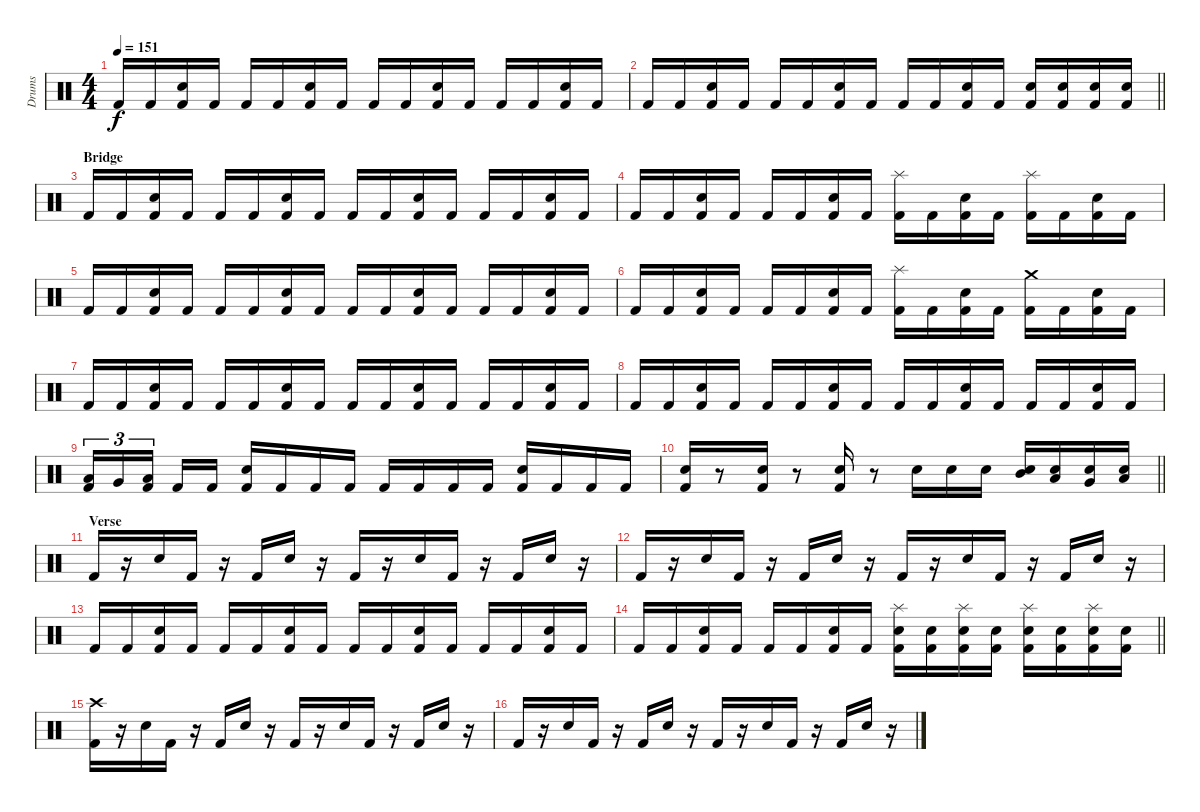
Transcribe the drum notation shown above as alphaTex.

\track ("Drums" "Drums") {instrument percussion}
\staff {score}
\articulation defaults
\ts (4 4)
\tempo 151
\clef neutral
\ks c "Kick (hit) 2".16{dy f} "Kick (hit) 2".16
("Snare (hit) 2" "Kick (hit) 2").16 "Kick (hit) 2".16 "Kick (hit) 2".16 "Kick (hit) 2".16 ("Snare (hit) 2" "Kick (hit) 2").16 "Kick (hit) 2".16 "Kick (hit) 2".16 "Kick (hit) 2".16 ("Snare (hit) 2" "Kick (hit) 2").16 "Kick (hit) 2".16 "Kick (hit) 2".16 "Kick (hit) 2".16 ("Snare (hit) 2" "Kick (hit) 2").16 "Kick (hit) 2".16 |
\barLineRight lightlight "Kick (hit) 2".16 "Kick (hit) 2".16
("Snare (hit) 2" "Kick (hit) 2").16 "Kick (hit) 2".16 "Kick (hit) 2".16 "Kick (hit) 2".16 ("Snare (hit) 2" "Kick (hit) 2").16 "Kick (hit) 2".16 "Kick (hit) 2".16 "Kick (hit) 2".16 ("Snare (hit) 2" "Kick (hit) 2").16 "Kick (hit) 2".16 ("Snare (hit) 2" "Kick (hit) 2").16 ("Snare (hit) 2" "Kick (hit) 2").16 ("Snare (hit) 2" "Kick (hit) 2").16 ("Snare (hit) 2" "Kick (hit) 2").16 |
\section ("" "Bridge")
"Kick (hit) 2".16 "Kick (hit) 2".16 ("Snare (hit) 2" "Kick (hit) 2").16 "Kick (hit) 2".16 "Kick (hit) 2".16 "Kick (hit) 2".16 ("Snare (hit) 2" "Kick (hit) 2").16 "Kick (hit) 2".16 "Kick (hit) 2".16 "Kick (hit) 2".16 ("Snare (hit) 2" "Kick (hit) 2").16 "Kick (hit) 2".16 "Kick (hit) 2".16 "Kick (hit) 2".16 ("Snare (hit) 2" "Kick (hit) 2").16 "Kick (hit) 2".16 |
"Kick (hit) 2".16 "Kick (hit) 2".16 ("Snare (hit) 2" "Kick (hit) 2").16 "Kick (hit) 2".16 "Kick (hit) 2".16 "Kick (hit) 2".16 ("Snare (hit) 2" "Kick (hit) 2").16 "Kick (hit) 2".16 ("Splash (hit)" "Kick (hit) 2").16 "Kick (hit) 2".16 ("Snare (hit) 2" "Kick (hit) 2").16 "Kick (hit) 2".16 ("Splash (hit)" "Kick (hit) 2").16 "Kick (hit) 2".16 ("Snare (hit) 2" "Kick (hit) 2").16 "Kick (hit) 2".16 |
"Kick (hit) 2".16 "Kick (hit) 2".16 ("Snare (hit) 2" "Kick (hit) 2").16 "Kick (hit) 2".16 "Kick (hit) 2".16 "Kick (hit) 2".16 ("Snare (hit) 2" "Kick (hit) 2").16 "Kick (hit) 2".16 "Kick (hit) 2".16 "Kick (hit) 2".16 ("Snare (hit) 2" "Kick (hit) 2").16 "Kick (hit) 2".16 "Kick (hit) 2".16 "Kick (hit) 2".16 ("Snare (hit) 2" "Kick (hit) 2").16 "Kick (hit) 2".16 |
"Kick (hit) 2".16 "Kick (hit) 2".16 ("Snare (hit) 2" "Kick (hit) 2").16 "Kick (hit) 2".16 "Kick (hit) 2".16 "Kick (hit) 2".16 ("Snare (hit) 2" "Kick (hit) 2").16 "Kick (hit) 2".16 ("Splash (hit)" "Kick (hit) 2").16 "Kick (hit) 2".16 ("Snare (hit) 2" "Kick (hit) 2").16 "Kick (hit) 2".16 ("Crash medium (hit)" "Kick (hit) 2").16 "Kick (hit) 2".16 ("Snare (hit) 2" "Kick (hit) 2").16 "Kick (hit) 2".16 |
"Kick (hit) 2".16 "Kick (hit) 2".16 ("Snare (hit) 2" "Kick (hit) 2").16 "Kick (hit) 2".16 "Kick (hit) 2".16 "Kick (hit) 2".16 ("Snare (hit) 2" "Kick (hit) 2").16 "Kick (hit) 2".16 "Kick (hit) 2".16 "Kick (hit) 2".16 ("Snare (hit) 2" "Kick (hit) 2").16 "Kick (hit) 2".16 "Kick (hit) 2".16 "Kick (hit) 2".16 ("Snare (hit) 2" "Kick (hit) 2").16 "Kick (hit) 2".16 |
"Kick (hit) 2".16 "Kick (hit) 2".16 ("Snare (hit) 2" "Kick (hit) 2").16 "Kick (hit) 2".16 "Kick (hit) 2".16 "Kick (hit) 2".16 ("Snare (hit) 2" "Kick (hit) 2").16 "Kick (hit) 2".16 "Kick (hit) 2".16 "Kick (hit) 2".16 ("Snare (hit) 2" "Kick (hit) 2").16 "Kick (hit) 2".16 "Kick (hit) 2".16 "Kick (hit) 2".16 ("Snare (hit) 2" "Kick (hit) 2").16 "Kick (hit) 2".16 |
("Low Tom (hit)" "Kick (hit) 2").16{tu (3 2)} "Very Low Tom (hit)".16{tu (3 2)} ("Low Floor Tom (hit)" "Kick (hit) 2").16{tu (3 2) beam splitsecondary} "Kick (hit) 2".16 "Kick (hit) 2".16 ("Snare (hit) 2" "Kick (hit) 2").16 "Kick (hit) 2".16 "Kick (hit) 2".16 "Kick (hit) 2".16 "Kick (hit) 2".16 "Kick (hit) 2".16 "Kick (hit) 2".16 "Kick (hit) 2".16 ("Snare (hit) 2" "Kick (hit) 2").16 "Kick (hit) 2".16 "Kick (hit) 2".16 "Kick (hit) 2".16 |
\barLineRight lightlight
("Snare (hit) 2" "Kick (hit) 2").16 r.8 ("Snare (hit) 2" "Kick (hit) 2").16 r.8 ("Snare (hit) 2" "Kick (hit) 2").16 r.8 "Snare (hit) 2".16 "Snare (hit) 2".16 "Snare (hit) 2".16 ("Mid Tom (hit)" "Snare (hit) 2").16 ("Low Tom (hit)" "Snare (hit) 2").16 ("Very Low Tom (hit)" "Snare (hit) 2").16 ("Low Floor Tom (hit)" "Snare (hit) 2").16 |
\section ("" "Verse")
"Kick (hit) 2".16 r.16 "Snare (hit) 2".16 "Kick (hit) 2".16 r.16 "Kick (hit) 2".16 "Snare (hit) 2".16 r.16 "Kick (hit) 2".16 r.16 "Snare (hit) 2".16 "Kick (hit) 2".16 r.16 "Kick (hit) 2".16 "Snare (hit) 2".16 r.16 |
"Kick (hit) 2".16 r.16 "Snare (hit) 2".16 "Kick (hit) 2".16 r.16 "Kick (hit) 2".16 "Snare (hit) 2".16 r.16 "Kick (hit) 2".16 r.16 "Snare (hit) 2".16 "Kick (hit) 2".16 r.16 "Kick (hit) 2".16 "Snare (hit) 2".16 r.16 |
"Kick (hit) 2".16 "Kick (hit) 2".16 ("Snare (hit) 2" "Kick (hit) 2").16 "Kick (hit) 2".16 "Kick (hit) 2".16 "Kick (hit) 2".16 ("Snare (hit) 2" "Kick (hit) 2").16 "Kick (hit) 2".16 "Kick (hit) 2".16 "Kick (hit) 2".16 ("Snare (hit) 2" "Kick (hit) 2").16 "Kick (hit) 2".16 "Kick (hit) 2".16 "Kick (hit) 2".16 ("Snare (hit) 2" "Kick (hit) 2").16 "Kick (hit) 2".16 |
\barLineRight lightlight "Kick (hit) 2".16 "Kick (hit) 2".16
("Snare (hit) 2" "Kick (hit) 2").16 "Kick (hit) 2".16 "Kick (hit) 2".16 "Kick (hit) 2".16 ("Snare (hit) 2" "Kick (hit) 2").16 "Kick (hit) 2".16 ("Splash (hit)" "Snare (hit) 2" "Kick (hit) 2").16 ("Snare (hit) 2" "Kick (hit) 2").16 ("Splash (hit)" "Snare (hit) 2" "Kick (hit) 2").16 ("Snare (hit) 2" "Kick (hit) 2").16 ("Splash (hit)" "Snare (hit) 2" "Kick (hit) 2").16 ("Snare (hit) 2" "Kick (hit) 2").16 ("Splash (hit)" "Snare (hit) 2" "Kick (hit) 2").16 ("Snare (hit) 2" "Kick (hit) 2").16 |
("Crash high (hit)" "Kick (hit) 2").16 r.16 "Snare (hit) 2".16 "Kick (hit) 2".16 r.16 "Kick (hit) 2".16 "Snare (hit) 2".16 r.16 "Kick (hit) 2".16 r.16 "Snare (hit) 2".16 "Kick (hit) 2".16 r.16 "Kick (hit) 2".16 "Snare (hit) 2".16 r.16 |
"Kick (hit) 2".16 r.16 "Snare (hit) 2".16 "Kick (hit) 2".16 r.16 "Kick (hit) 2".16 "Snare (hit) 2".16 r.16 "Kick (hit) 2".16 r.16 "Snare (hit) 2".16 "Kick (hit) 2".16 r.16 "Kick (hit) 2".16 "Snare (hit) 2".16 r.16
